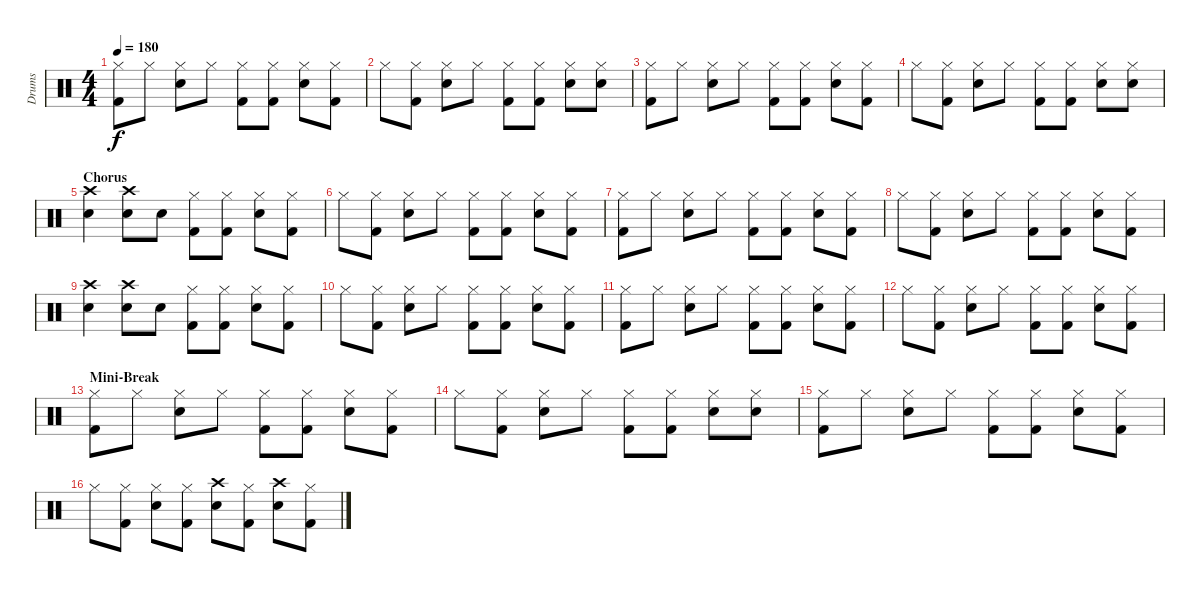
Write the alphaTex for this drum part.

\track ("Drums" "Drums") {instrument percussion}
\staff {score}
\articulation defaults
\ts (4 4)
\tempo 180
\clef neutral
\ks c
("Hi-Hat (closed)" "Kick (hit) 2").8{dy f} "Hi-Hat (closed)".8 ("Hi-Hat (closed)" "Snare (hit) 2").8 "Hi-Hat (closed)".8 ("Hi-Hat (closed)" "Kick (hit) 2").8 ("Hi-Hat (closed)" "Kick (hit) 2").8 ("Hi-Hat (closed)" "Snare (hit) 2").8 ("Hi-Hat (closed)" "Kick (hit) 2").8 |
"Hi-Hat (closed)".8 ("Hi-Hat (closed)" "Kick (hit) 2").8 ("Hi-Hat (closed)" "Snare (hit) 2").8 "Hi-Hat (closed)".8 ("Hi-Hat (closed)" "Kick (hit) 2").8 ("Hi-Hat (closed)" "Kick (hit) 2").8 ("Hi-Hat (closed)" "Snare (hit) 2").8 ("Hi-Hat (closed)" "Snare (hit) 2").8 |
("Hi-Hat (closed)" "Kick (hit) 2").8 "Hi-Hat (closed)".8 ("Hi-Hat (closed)" "Snare (hit) 2").8 "Hi-Hat (closed)".8 ("Hi-Hat (closed)" "Kick (hit) 2").8 ("Hi-Hat (closed)" "Kick (hit) 2").8 ("Hi-Hat (closed)" "Snare (hit) 2").8 ("Hi-Hat (closed)" "Kick (hit) 2").8 |
"Hi-Hat (closed)".8 ("Hi-Hat (closed)" "Kick (hit) 2").8 ("Hi-Hat (closed)" "Snare (hit) 2").8 "Hi-Hat (closed)".8 ("Hi-Hat (closed)" "Kick (hit) 2").8 ("Hi-Hat (closed)" "Kick (hit) 2").8 ("Hi-Hat (closed)" "Snare (hit) 2").8 ("Hi-Hat (closed)" "Snare (hit) 2").8 |
\section ("" "Chorus")
("Electric Snare (hit)" "Crash high (hit)").4 ("Electric Snare (hit)" "Crash high (hit)").8 "Snare (hit) 2".8 ("Hi-Hat (closed)" "Kick (hit) 2").8 ("Hi-Hat (closed)" "Kick (hit) 2").8 ("Hi-Hat (closed)" "Snare (hit) 2").8 ("Hi-Hat (closed)" "Kick (hit) 2").8 |
"Hi-Hat (closed)".8 ("Hi-Hat (closed)" "Kick (hit) 2").8 ("Hi-Hat (closed)" "Snare (hit) 2").8 "Hi-Hat (closed)".8 ("Hi-Hat (closed)" "Kick (hit) 2").8 ("Hi-Hat (closed)" "Kick (hit) 2").8 ("Hi-Hat (closed)" "Snare (hit) 2").8 ("Hi-Hat (closed)" "Kick (hit) 2").8 |
("Hi-Hat (closed)" "Kick (hit) 2").8 "Hi-Hat (closed)".8 ("Hi-Hat (closed)" "Snare (hit) 2").8 "Hi-Hat (closed)".8 ("Hi-Hat (closed)" "Kick (hit) 2").8 ("Hi-Hat (closed)" "Kick (hit) 2").8 ("Hi-Hat (closed)" "Snare (hit) 2").8 ("Hi-Hat (closed)" "Kick (hit) 2").8 |
"Hi-Hat (closed)".8 ("Hi-Hat (closed)" "Kick (hit) 2").8 ("Hi-Hat (closed)" "Snare (hit) 2").8 "Hi-Hat (closed)".8 ("Hi-Hat (closed)" "Kick (hit) 2").8 ("Hi-Hat (closed)" "Kick (hit) 2").8 ("Hi-Hat (closed)" "Snare (hit) 2").8 ("Hi-Hat (closed)" "Kick (hit) 2").8 |
("Electric Snare (hit)" "Crash high (hit)").4 ("Electric Snare (hit)" "Crash high (hit)").8 "Snare (hit) 2".8 ("Hi-Hat (closed)" "Kick (hit) 2").8 ("Hi-Hat (closed)" "Kick (hit) 2").8 ("Hi-Hat (closed)" "Snare (hit) 2").8 ("Hi-Hat (closed)" "Kick (hit) 2").8 |
"Hi-Hat (closed)".8 ("Hi-Hat (closed)" "Kick (hit) 2").8 ("Hi-Hat (closed)" "Snare (hit) 2").8 "Hi-Hat (closed)".8 ("Hi-Hat (closed)" "Kick (hit) 2").8 ("Hi-Hat (closed)" "Kick (hit) 2").8 ("Hi-Hat (closed)" "Snare (hit) 2").8 ("Hi-Hat (closed)" "Kick (hit) 2").8 |
("Hi-Hat (closed)" "Kick (hit) 2").8 "Hi-Hat (closed)".8 ("Hi-Hat (closed)" "Snare (hit) 2").8 "Hi-Hat (closed)".8 ("Hi-Hat (closed)" "Kick (hit) 2").8 ("Hi-Hat (closed)" "Kick (hit) 2").8 ("Hi-Hat (closed)" "Snare (hit) 2").8 ("Hi-Hat (closed)" "Kick (hit) 2").8 |
"Hi-Hat (closed)".8 ("Hi-Hat (closed)" "Kick (hit) 2").8 ("Hi-Hat (closed)" "Snare (hit) 2").8 "Hi-Hat (closed)".8 ("Hi-Hat (closed)" "Kick (hit) 2").8 ("Hi-Hat (closed)" "Kick (hit) 2").8 ("Hi-Hat (closed)" "Snare (hit) 2").8 ("Hi-Hat (closed)" "Kick (hit) 2").8 |
\section ("" "Mini-Break")
("Hi-Hat (closed)" "Kick (hit) 2").8 "Hi-Hat (closed)".8 ("Hi-Hat (closed)" "Snare (hit) 2").8 "Hi-Hat (closed)".8 ("Hi-Hat (closed)" "Kick (hit) 2").8 ("Hi-Hat (closed)" "Kick (hit) 2").8 ("Hi-Hat (closed)" "Snare (hit) 2").8 ("Hi-Hat (closed)" "Kick (hit) 2").8 |
"Hi-Hat (closed)".8 ("Hi-Hat (closed)" "Kick (hit) 2").8 ("Hi-Hat (closed)" "Snare (hit) 2").8 "Hi-Hat (closed)".8 ("Hi-Hat (closed)" "Kick (hit) 2").8 ("Hi-Hat (closed)" "Kick (hit) 2").8 ("Hi-Hat (closed)" "Snare (hit) 2").8 ("Hi-Hat (closed)" "Snare (hit) 2").8 |
("Hi-Hat (closed)" "Kick (hit) 2").8 "Hi-Hat (closed)".8 ("Hi-Hat (closed)" "Snare (hit) 2").8 "Hi-Hat (closed)".8 ("Hi-Hat (closed)" "Kick (hit) 2").8 ("Hi-Hat (closed)" "Kick (hit) 2").8 ("Hi-Hat (closed)" "Snare (hit) 2").8 ("Hi-Hat (closed)" "Kick (hit) 2").8 |
"Hi-Hat (closed)".8 ("Hi-Hat (closed)" "Kick (hit) 2").8 ("Hi-Hat (closed)" "Snare (hit) 2").8 ("Hi-Hat (closed)" "Kick (hit) 2").8 ("Crash high (hit)" "Snare (hit) 2").8 ("Hi-Hat (closed)" "Kick (hit) 2").8 ("Crash high (hit)" "Snare (hit) 2").8 ("Hi-Hat (closed)" "Kick (hit) 2").8
